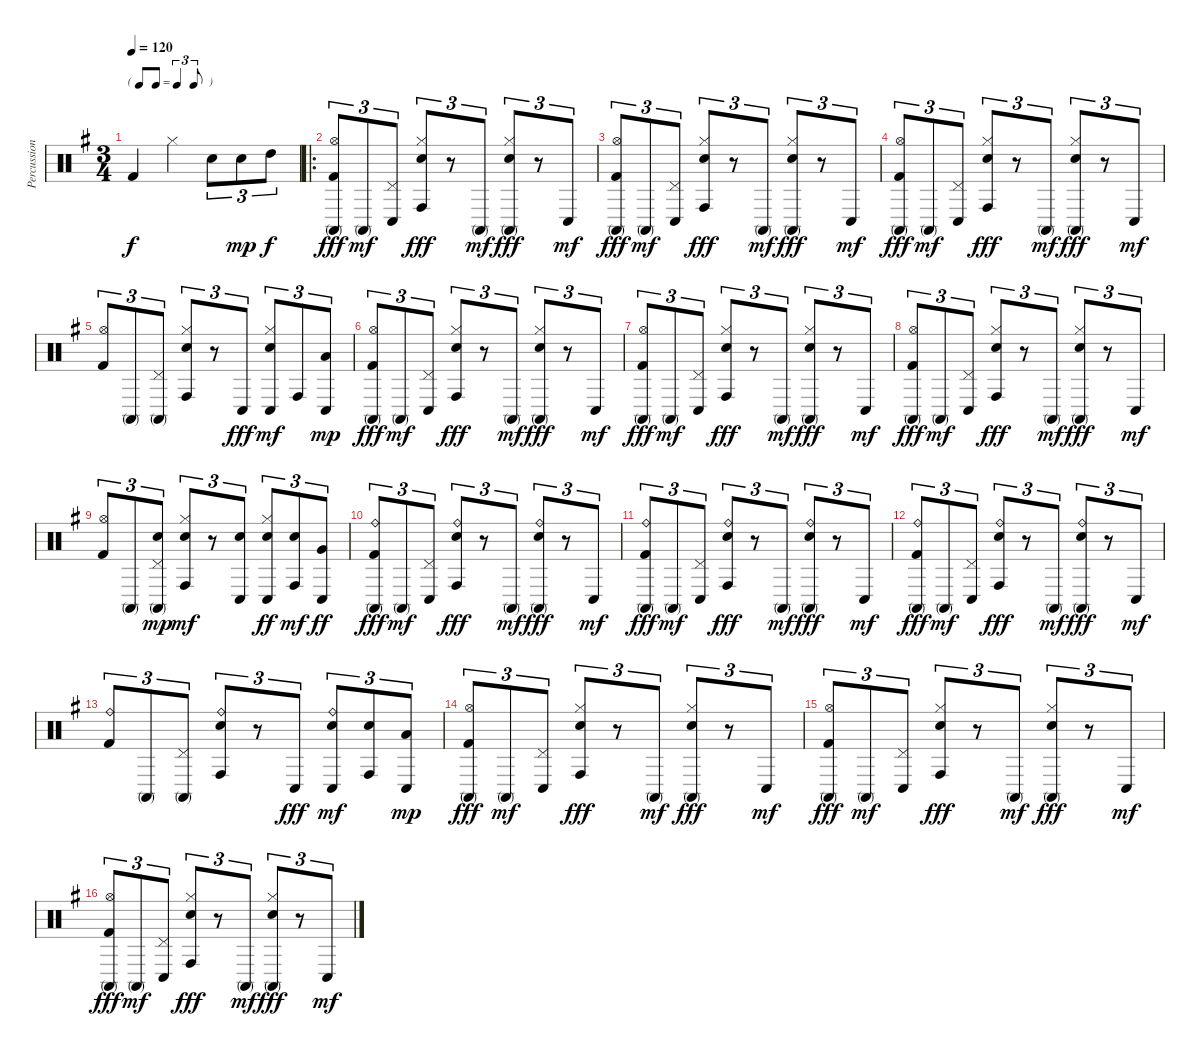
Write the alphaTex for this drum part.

\track ("Percussion" "Percussion") {instrument percussion}
\staff {score}
\articulation defaults
\ts (3 4)
\tf triplet8th
\tempo 120
\clef neutral
\ks g "Kick (hit) 2".4{dy f} "Hi-Hat (closed)".4 "Snare (hit) 2".8{tu (3 2)} "Snare (hit) 2".8{tu (3 2) dy mp} "High Tom (hit)".8{tu (3 2) dy f}
|
\ro
("Conga high (mute)" "Hi-Hat (open)" "Kick (hit) 2").8{tu (3 2) dy fff} "Conga high (mute)".8{tu (3 2) dy mf} ("Conga low (hit)" "Pedal Hi-Hat (hit)").8{tu (3 2)} ("Conga high (hit)" "Hi-Hat (closed)" "Snare (hit) 2").8{tu (3 2) dy fff} r.8{tu (3 2)} "Conga high (mute)".8{tu (3 2) dy mf} ("Conga high (mute)" "Hi-Hat (closed)" "Snare (hit) 2").8{tu (3 2) dy fff} r.8{tu (3 2)} "Conga low (hit)".8{tu (3 2) dy mf} |
("Conga high (mute)" "Hi-Hat (open)" "Kick (hit) 2").8{tu (3 2) dy fff} "Conga high (mute)".8{tu (3 2) dy mf} ("Conga low (hit)" "Pedal Hi-Hat (hit)").8{tu (3 2)} ("Conga high (hit)" "Hi-Hat (closed)" "Snare (hit) 2").8{tu (3 2) dy fff} r.8{tu (3 2)} "Conga high (mute)".8{tu (3 2) dy mf} ("Conga high (mute)" "Hi-Hat (closed)" "Snare (hit) 2").8{tu (3 2) dy fff} r.8{tu (3 2)} "Conga low (hit)".8{tu (3 2) dy mf} |
("Conga high (mute)" "Hi-Hat (open)" "Kick (hit) 2").8{tu (3 2) dy fff} "Conga high (mute)".8{tu (3 2) dy mf} ("Conga low (hit)" "Pedal Hi-Hat (hit)").8{tu (3 2)} ("Conga high (hit)" "Hi-Hat (closed)" "Snare (hit) 2").8{tu (3 2) dy fff} r.8{tu (3 2)} "Conga high (mute)".8{tu (3 2) dy mf} ("Conga high (mute)" "Hi-Hat (closed)" "Snare (hit) 2").8{tu (3 2) dy fff} r.8{tu (3 2)} "Conga low (hit)".8{tu (3 2) dy mf} |
("Hi-Hat (open)" "Kick (hit) 2").8{tu (3 2)} "Conga high (mute)".8{tu (3 2)} ("Conga high (mute)" "Pedal Hi-Hat (hit)").8{tu (3 2)} ("Conga high (hit)" "Hi-Hat (closed)" "Snare (hit) 2").8{tu (3 2)} r.8{tu (3 2)} "Conga low (hit)".8{tu (3 2) dy fff} ("Conga low (hit)" "Hi-Hat (closed)" "Snare (hit) 2").8{tu (3 2) dy mf} "Conga high (hit)".8{tu (3 2)} ("Conga low (hit)" "Low Tom (hit)").8{tu (3 2) dy mp} |
("Conga high (mute)" "Hi-Hat (open)" "Kick (hit) 2").8{tu (3 2) dy fff} "Conga high (mute)".8{tu (3 2) dy mf} ("Conga low (hit)" "Pedal Hi-Hat (hit)").8{tu (3 2)} ("Conga high (hit)" "Hi-Hat (closed)" "Snare (hit) 2").8{tu (3 2) dy fff} r.8{tu (3 2)} "Conga high (mute)".8{tu (3 2) dy mf} ("Conga high (mute)" "Hi-Hat (closed)" "Snare (hit) 2").8{tu (3 2) dy fff} r.8{tu (3 2)} "Conga low (hit)".8{tu (3 2) dy mf} |
("Conga high (mute)" "Hi-Hat (open)" "Kick (hit) 2").8{tu (3 2) dy fff} "Conga high (mute)".8{tu (3 2) dy mf} ("Conga low (hit)" "Pedal Hi-Hat (hit)").8{tu (3 2)} ("Conga high (hit)" "Hi-Hat (closed)" "Snare (hit) 2").8{tu (3 2) dy fff} r.8{tu (3 2)} "Conga high (mute)".8{tu (3 2) dy mf} ("Conga high (mute)" "Hi-Hat (closed)" "Snare (hit) 2").8{tu (3 2) dy fff} r.8{tu (3 2)} "Conga low (hit)".8{tu (3 2) dy mf} |
("Conga high (mute)" "Hi-Hat (open)" "Kick (hit) 2").8{tu (3 2) dy fff} "Conga high (mute)".8{tu (3 2) dy mf} ("Conga low (hit)" "Pedal Hi-Hat (hit)").8{tu (3 2)} ("Conga high (hit)" "Hi-Hat (closed)" "Snare (hit) 2").8{tu (3 2) dy fff} r.8{tu (3 2)} "Conga high (mute)".8{tu (3 2) dy mf} ("Conga high (mute)" "Hi-Hat (closed)" "Snare (hit) 2").8{tu (3 2) dy fff} r.8{tu (3 2)} "Conga low (hit)".8{tu (3 2) dy mf} |
("Hi-Hat (open)" "Kick (hit) 2").8{tu (3 2)} "Conga high (mute)".8{tu (3 2)} ("Conga high (mute)" "Pedal Hi-Hat (hit)" "Snare (hit) 2").8{tu (3 2) dy mp} ("Conga high (hit)" "Hi-Hat (closed)" "Snare (hit) 2").8{tu (3 2) dy mf} r.8{tu (3 2)} ("Conga low (hit)" "Snare (hit) 2").8{tu (3 2)} ("Conga low (hit)" "Hi-Hat (closed)" "Snare (hit) 2").8{tu (3 2) dy ff} ("Conga high (hit)" "Snare (hit) 2").8{tu (3 2) dy mf} ("Conga low (hit)" "Very Low Tom (hit)").8{tu (3 2) dy ff} |
("Conga high (mute)" "Ride (bell)" "Kick (hit) 2").8{tu (3 2) dy fff} "Conga high (mute)".8{tu (3 2) dy mf} ("Conga low (hit)" "Pedal Hi-Hat (hit)").8{tu (3 2)} ("Conga high (hit)" "Ride (bell)" "Snare (hit) 2").8{tu (3 2) dy fff} r.8{tu (3 2)} "Conga high (mute)".8{tu (3 2) dy mf} ("Conga high (mute)" "Ride (bell)" "Snare (hit) 2").8{tu (3 2) dy fff} r.8{tu (3 2)} "Conga low (hit)".8{tu (3 2) dy mf} |
("Conga high (mute)" "Ride (bell)" "Kick (hit) 2").8{tu (3 2) dy fff} "Conga high (mute)".8{tu (3 2) dy mf} ("Conga low (hit)" "Pedal Hi-Hat (hit)").8{tu (3 2)} ("Conga high (hit)" "Ride (bell)" "Snare (hit) 2").8{tu (3 2) dy fff} r.8{tu (3 2)} "Conga high (mute)".8{tu (3 2) dy mf} ("Conga high (mute)" "Ride (bell)" "Snare (hit) 2").8{tu (3 2) dy fff} r.8{tu (3 2)} "Conga low (hit)".8{tu (3 2) dy mf} |
("Conga high (mute)" "Ride (bell)" "Kick (hit) 2").8{tu (3 2) dy fff} "Conga high (mute)".8{tu (3 2) dy mf} ("Conga low (hit)" "Pedal Hi-Hat (hit)").8{tu (3 2)} ("Conga high (hit)" "Ride (bell)" "Snare (hit) 2").8{tu (3 2) dy fff} r.8{tu (3 2)} "Conga high (mute)".8{tu (3 2) dy mf} ("Conga high (mute)" "Ride (bell)" "Snare (hit) 2").8{tu (3 2) dy fff} r.8{tu (3 2)} "Conga low (hit)".8{tu (3 2) dy mf} |
("Ride (bell)" "Kick (hit) 2").8{tu (3 2)} "Conga high (mute)".8{tu (3 2)} ("Conga high (mute)" "Pedal Hi-Hat (hit)").8{tu (3 2)} ("Conga high (hit)" "Ride (bell)" "Snare (hit) 2").8{tu (3 2)} r.8{tu (3 2)} "Conga low (hit)".8{tu (3 2) dy fff} ("Conga low (hit)" "Ride (bell)" "Snare (hit) 2").8{tu (3 2) dy mf} ("Conga high (hit)" "Snare (hit) 2").8{tu (3 2)} ("Conga low (hit)" "Low Tom (hit)").8{tu (3 2) dy mp} |
("Conga high (mute)" "Hi-Hat (open)" "Kick (hit) 2").8{tu (3 2) dy fff} "Conga high (mute)".8{tu (3 2) dy mf} ("Conga low (hit)" "Pedal Hi-Hat (hit)").8{tu (3 2)} ("Conga high (hit)" "Hi-Hat (closed)" "Snare (hit) 2").8{tu (3 2) dy fff} r.8{tu (3 2)} "Conga high (mute)".8{tu (3 2) dy mf} ("Conga high (mute)" "Hi-Hat (closed)" "Snare (hit) 2").8{tu (3 2) dy fff} r.8{tu (3 2)} "Conga low (hit)".8{tu (3 2) dy mf} |
("Conga high (mute)" "Hi-Hat (open)" "Kick (hit) 2").8{tu (3 2) dy fff} "Conga high (mute)".8{tu (3 2) dy mf} ("Conga low (hit)" "Pedal Hi-Hat (hit)").8{tu (3 2)} ("Conga high (hit)" "Hi-Hat (closed)" "Snare (hit) 2").8{tu (3 2) dy fff} r.8{tu (3 2)} "Conga high (mute)".8{tu (3 2) dy mf} ("Conga high (mute)" "Hi-Hat (closed)" "Snare (hit) 2").8{tu (3 2) dy fff} r.8{tu (3 2)} "Conga low (hit)".8{tu (3 2) dy mf} |
("Conga high (mute)" "Hi-Hat (open)" "Kick (hit) 2").8{tu (3 2) dy fff} "Conga high (mute)".8{tu (3 2) dy mf} ("Conga low (hit)" "Pedal Hi-Hat (hit)").8{tu (3 2)} ("Conga high (hit)" "Hi-Hat (closed)" "Snare (hit) 2").8{tu (3 2) dy fff} r.8{tu (3 2)} "Conga high (mute)".8{tu (3 2) dy mf} ("Conga high (mute)" "Hi-Hat (closed)" "Snare (hit) 2").8{tu (3 2) dy fff} r.8{tu (3 2)} "Conga low (hit)".8{tu (3 2) dy mf}
